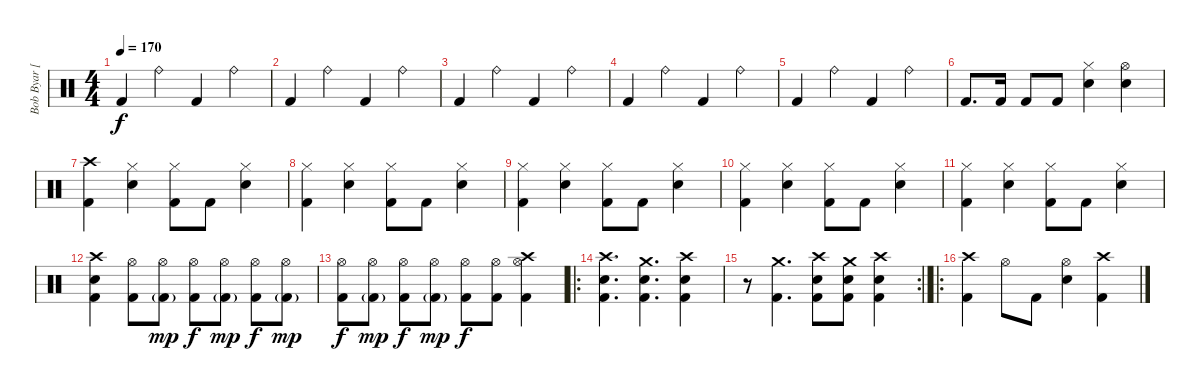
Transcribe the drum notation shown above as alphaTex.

\track ("Bob Byar [Drums]" "Bob Byar [") {instrument percussion}
\staff {score}
\articulation defaults
\ts (4 4)
\tempo 170
\clef neutral
\ks c "Kick (hit) 2".4{dy f} "Ride (bell)".4 "Kick (hit) 2".4 "Ride (bell)".4
|
"Kick (hit) 2".4 "Ride (bell)".4 "Kick (hit) 2".4 "Ride (bell)".4 |
"Kick (hit) 2".4 "Ride (bell)".4 "Kick (hit) 2".4 "Ride (bell)".4 |
"Kick (hit) 2".4 "Ride (bell)".4 "Kick (hit) 2".4 "Ride (bell)".4 |
"Kick (hit) 2".4 "Ride (bell)".4 "Kick (hit) 2".4 "Ride (bell)".4 |
"Kick (hit) 2".8{d} "Kick (hit) 2".16 "Kick (hit) 2".8 "Kick (hit) 2".8 ("Hi-Hat (closed)" "Electric Snare (hit)").4 ("Hi-Hat (open)" "Electric Snare (hit)").4 |
("Crash high (hit)" "Kick (hit) 2").4 ("Hi-Hat (closed)" "Electric Snare (hit)").4 ("Hi-Hat (closed)" "Kick (hit) 2").8 "Kick (hit) 2".8 ("Hi-Hat (closed)" "Electric Snare (hit)").4 |
("Hi-Hat (closed)" "Kick (hit) 2").4 ("Hi-Hat (closed)" "Electric Snare (hit)").4 ("Hi-Hat (closed)" "Kick (hit) 2").8 "Kick (hit) 2".8 ("Hi-Hat (closed)" "Electric Snare (hit)").4 |
("Hi-Hat (closed)" "Kick (hit) 2").4 ("Hi-Hat (closed)" "Electric Snare (hit)").4 ("Hi-Hat (closed)" "Kick (hit) 2").8 "Kick (hit) 2".8 ("Hi-Hat (closed)" "Electric Snare (hit)").4 |
("Hi-Hat (closed)" "Kick (hit) 2").4 ("Hi-Hat (closed)" "Electric Snare (hit)").4 ("Hi-Hat (closed)" "Kick (hit) 2").8 "Kick (hit) 2".8 ("Hi-Hat (closed)" "Electric Snare (hit)").4 |
("Hi-Hat (closed)" "Kick (hit) 2").4 ("Hi-Hat (closed)" "Electric Snare (hit)").4 ("Hi-Hat (closed)" "Kick (hit) 2").8 "Kick (hit) 2".8 ("Hi-Hat (closed)" "Electric Snare (hit)").4 |
("Crash high (hit)" "Electric Snare (hit)" "Kick (hit) 2").4 ("Hi-Hat (open)" "Kick (hit) 2").8{volume 8} ("Hi-Hat (open)" "Kick (hit) 2"{g}).8{dy mp volume 15} ("Hi-Hat (open)" "Kick (hit) 2").8{dy f} ("Hi-Hat (open)" "Kick (hit) 2"{g}).8{dy mp} ("Hi-Hat (open)" "Kick (hit) 2").8{dy f} ("Hi-Hat (open)" "Kick (hit) 2"{g}).8{dy mp} |
("Hi-Hat (open)" "Kick (hit) 2").8{dy f} ("Hi-Hat (open)" "Kick (hit) 2"{g}).8{dy mp} ("Hi-Hat (open)" "Kick (hit) 2").8{dy f} ("Hi-Hat (open)" "Kick (hit) 2"{g}).8{dy mp} ("Hi-Hat (open)" "Kick (hit) 2").8{dy f} ("Hi-Hat (open)" "Kick (hit) 2").8 ("Crash high (hit)" "Hi-Hat (open)" "Kick (hit) 2").4 |
\ro
("Crash high (hit)" "Electric Snare (hit)" "Kick (hit) 2").4{d} ("Crash medium (hit)" "Electric Snare (hit)" "Kick (hit) 2").4{d} ("Crash high (hit)" "Electric Snare (hit)" "Kick (hit) 2").4 |
\rc 2
\barLineRight lightlight
r.8 ("Crash medium (hit)" "Kick (hit) 2").4{d} ("Crash high (hit)" "Electric Snare (hit)" "Kick (hit) 2").8 ("Crash medium (hit)" "Electric Snare (hit)" "Kick (hit) 2").8 ("Crash high (hit)" "Electric Snare (hit)" "Kick (hit) 2").4 |
\ro
("Crash high (hit)" "Kick (hit) 2").4 "Hi-Hat (open)".8 "Kick (hit) 2".8 ("Hi-Hat (open)" "Electric Snare (hit)").4 ("Crash high (hit)" "Kick (hit) 2").4
